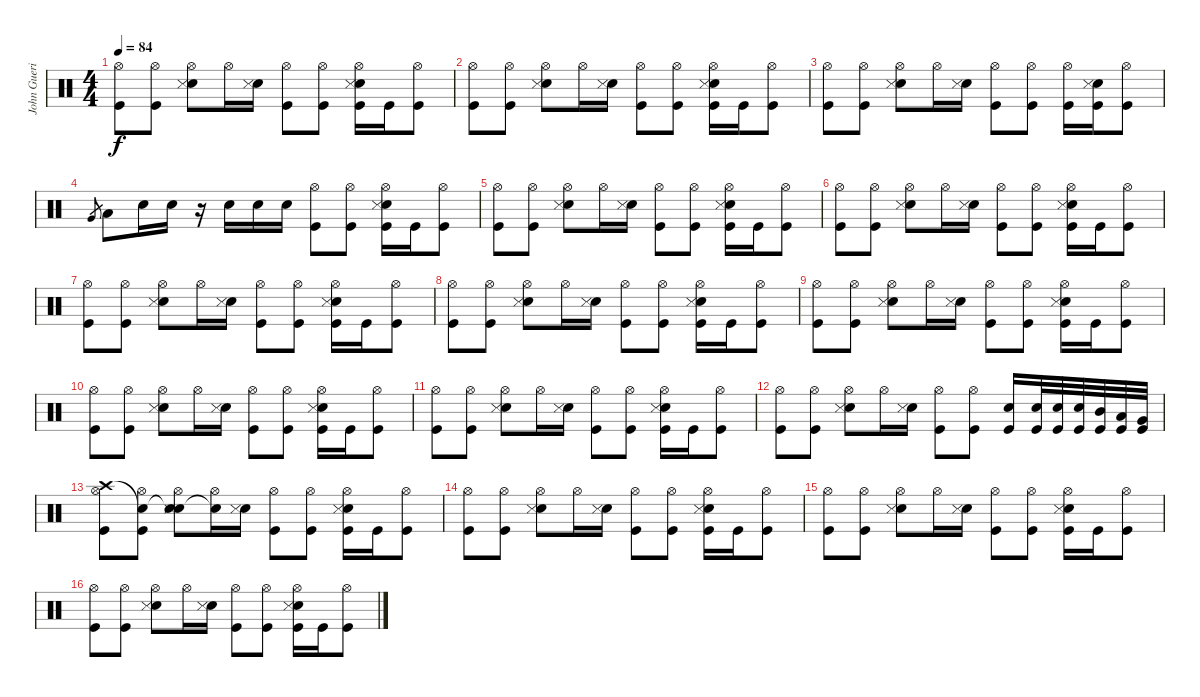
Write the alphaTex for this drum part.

\track ("John Guerin - Drum's" "John Gueri") {instrument percussion}
\staff {score}
\articulation defaults
\ts (4 4)
\tempo 84
\clef neutral
\ks c
("Hi-Hat (open)" "Kick (hit)").8{dy f} ("Hi-Hat (open)" "Kick (hit)").8 ("Hi-Hat (open)" "Electric Snare (hit)" "Snare (side stick) 3").8 "Hi-Hat (open)".16 ("Electric Snare (hit)" "Snare (side stick) 3").16 ("Hi-Hat (open)" "Kick (hit)").8 ("Hi-Hat (open)" "Kick (hit)").8 ("Hi-Hat (open)" "Electric Snare (hit)" "Snare (side stick) 3" "Kick (hit)").16 "Kick (hit)".16 ("Hi-Hat (open)" "Kick (hit)").8 |
("Hi-Hat (open)" "Kick (hit)").8 ("Hi-Hat (open)" "Kick (hit)").8 ("Hi-Hat (open)" "Electric Snare (hit)" "Snare (side stick) 3").8 "Hi-Hat (open)".16 ("Electric Snare (hit)" "Snare (side stick) 3").16 ("Hi-Hat (open)" "Kick (hit)").8 ("Hi-Hat (open)" "Kick (hit)").8 ("Hi-Hat (open)" "Electric Snare (hit)" "Snare (side stick) 3" "Kick (hit)").16 "Kick (hit)".16 ("Hi-Hat (open)" "Kick (hit)").8 |
("Hi-Hat (open)" "Kick (hit)").8 ("Hi-Hat (open)" "Kick (hit)").8 ("Hi-Hat (open)" "Electric Snare (hit)" "Snare (side stick) 3").8 "Hi-Hat (open)".16 ("Electric Snare (hit)" "Snare (side stick) 3").16 ("Hi-Hat (open)" "Kick (hit)").8 ("Hi-Hat (open)" "Kick (hit)").8 ("Hi-Hat (open)" "Kick (hit)").16 ("Electric Snare (hit)" "Snare (side stick) 3" "Kick (hit)").16 ("Hi-Hat (open)" "Kick (hit)").8 |
"Very Low Tom (hit)".8{gr} "Low Floor Tom (hit)".8 "Electric Snare (hit)".16 "Electric Snare (hit)".16 r.16 "Electric Snare (hit)".16 "Electric Snare (hit)".16 "Electric Snare (hit)".16 ("Hi-Hat (open)" "Kick (hit)").8 ("Hi-Hat (open)" "Kick (hit)").8 ("Hi-Hat (open)" "Electric Snare (hit)" "Snare (side stick) 3" "Kick (hit)").16 "Kick (hit)".16 ("Hi-Hat (open)" "Kick (hit)").8 |
("Hi-Hat (open)" "Kick (hit)").8 ("Hi-Hat (open)" "Kick (hit)").8 ("Hi-Hat (open)" "Electric Snare (hit)" "Snare (side stick) 3").8 "Hi-Hat (open)".16 ("Electric Snare (hit)" "Snare (side stick) 3").16 ("Hi-Hat (open)" "Kick (hit)").8 ("Hi-Hat (open)" "Kick (hit)").8 ("Hi-Hat (open)" "Electric Snare (hit)" "Snare (side stick) 3" "Kick (hit)").16 "Kick (hit)".16 ("Hi-Hat (open)" "Kick (hit)").8 |
("Hi-Hat (open)" "Kick (hit)").8 ("Hi-Hat (open)" "Kick (hit)").8 ("Hi-Hat (open)" "Electric Snare (hit)" "Snare (side stick) 3").8 "Hi-Hat (open)".16 ("Electric Snare (hit)" "Snare (side stick) 3").16 ("Hi-Hat (open)" "Kick (hit)").8 ("Hi-Hat (open)" "Kick (hit)").8 ("Hi-Hat (open)" "Electric Snare (hit)" "Snare (side stick) 3" "Kick (hit)").16 "Kick (hit)".16 ("Hi-Hat (open)" "Kick (hit)").8 |
("Hi-Hat (open)" "Kick (hit)").8 ("Hi-Hat (open)" "Kick (hit)").8 ("Hi-Hat (open)" "Electric Snare (hit)" "Snare (side stick) 3").8 "Hi-Hat (open)".16 ("Electric Snare (hit)" "Snare (side stick) 3").16 ("Hi-Hat (open)" "Kick (hit)").8 ("Hi-Hat (open)" "Kick (hit)").8 ("Hi-Hat (open)" "Electric Snare (hit)" "Snare (side stick) 3" "Kick (hit)").16 "Kick (hit)".16 ("Hi-Hat (open)" "Kick (hit)").8 |
("Hi-Hat (open)" "Kick (hit)").8 ("Hi-Hat (open)" "Kick (hit)").8 ("Hi-Hat (open)" "Electric Snare (hit)" "Snare (side stick) 3").8 "Hi-Hat (open)".16 ("Electric Snare (hit)" "Snare (side stick) 3").16 ("Hi-Hat (open)" "Kick (hit)").8 ("Hi-Hat (open)" "Kick (hit)").8 ("Hi-Hat (open)" "Electric Snare (hit)" "Snare (side stick) 3" "Kick (hit)").16 "Kick (hit)".16 ("Hi-Hat (open)" "Kick (hit)").8 |
("Hi-Hat (open)" "Kick (hit)").8 ("Hi-Hat (open)" "Kick (hit)").8 ("Hi-Hat (open)" "Electric Snare (hit)" "Snare (side stick) 3").8 "Hi-Hat (open)".16 ("Electric Snare (hit)" "Snare (side stick) 3").16 ("Hi-Hat (open)" "Kick (hit)").8 ("Hi-Hat (open)" "Kick (hit)").8 ("Hi-Hat (open)" "Electric Snare (hit)" "Snare (side stick) 3" "Kick (hit)").16 "Kick (hit)".16 ("Hi-Hat (open)" "Kick (hit)").8 |
("Hi-Hat (open)" "Kick (hit)").8 ("Hi-Hat (open)" "Kick (hit)").8 ("Hi-Hat (open)" "Electric Snare (hit)" "Snare (side stick) 3").8 "Hi-Hat (open)".16 ("Electric Snare (hit)" "Snare (side stick) 3").16 ("Hi-Hat (open)" "Kick (hit)").8 ("Hi-Hat (open)" "Kick (hit)").8 ("Hi-Hat (open)" "Electric Snare (hit)" "Snare (side stick) 3" "Kick (hit)").16 "Kick (hit)".16 ("Hi-Hat (open)" "Kick (hit)").8 |
("Hi-Hat (open)" "Kick (hit)").8 ("Hi-Hat (open)" "Kick (hit)").8 ("Hi-Hat (open)" "Electric Snare (hit)" "Snare (side stick) 3").8 "Hi-Hat (open)".16 ("Electric Snare (hit)" "Snare (side stick) 3").16 ("Hi-Hat (open)" "Kick (hit)").8 ("Hi-Hat (open)" "Kick (hit)").8 ("Hi-Hat (open)" "Electric Snare (hit)" "Snare (side stick) 3" "Kick (hit)").16 "Kick (hit)".16 ("Hi-Hat (open)" "Kick (hit)").8 |
("Hi-Hat (open)" "Kick (hit)").8 ("Hi-Hat (open)" "Kick (hit)").8 ("Hi-Hat (open)" "Electric Snare (hit)" "Snare (side stick) 3").8 "Hi-Hat (open)".16 ("Electric Snare (hit)" "Snare (side stick) 3").16 ("Hi-Hat (open)" "Kick (hit)").8 ("Hi-Hat (open)" "Kick (hit)").8 ("Electric Snare (hit)" "Kick (hit)").16 ("Electric Snare (hit)" "Kick (hit)").32 ("Electric Snare (hit)" "Kick (hit)").32 ("Electric Snare (hit)" "Kick (hit)").32 ("Mid Tom (hit)" "Kick (hit)").32 ("Low Tom (hit)" "Kick (hit)").32 ("Very Low Tom (hit)" "Kick (hit)").32 |
("Crash high (hit)" "Hi-Hat (open)" "Kick (hit)").8 ("Snare (hit)"{t} "Hi-Hat (open)" "Kick (hit)").8 ("Snare (hit)"{t} "Hi-Hat (open)" "Electric Snare (hit)" "Snare (side stick) 3").8 ("Snare (hit)"{t} "Hi-Hat (open)").16 ("Electric Snare (hit)" "Snare (side stick) 3").16 ("Hi-Hat (open)" "Kick (hit)").8 ("Hi-Hat (open)" "Kick (hit)").8 ("Hi-Hat (open)" "Electric Snare (hit)" "Snare (side stick) 3" "Kick (hit)").16 "Kick (hit)".16 ("Hi-Hat (open)" "Kick (hit)").8 |
("Hi-Hat (open)" "Kick (hit)").8 ("Hi-Hat (open)" "Kick (hit)").8 ("Hi-Hat (open)" "Electric Snare (hit)" "Snare (side stick) 3").8 "Hi-Hat (open)".16 ("Electric Snare (hit)" "Snare (side stick) 3").16 ("Hi-Hat (open)" "Kick (hit)").8 ("Hi-Hat (open)" "Kick (hit)").8 ("Hi-Hat (open)" "Electric Snare (hit)" "Snare (side stick) 3" "Kick (hit)").16 "Kick (hit)".16 ("Hi-Hat (open)" "Kick (hit)").8 |
("Hi-Hat (open)" "Kick (hit)").8 ("Hi-Hat (open)" "Kick (hit)").8 ("Hi-Hat (open)" "Electric Snare (hit)" "Snare (side stick) 3").8 "Hi-Hat (open)".16 ("Electric Snare (hit)" "Snare (side stick) 3").16 ("Hi-Hat (open)" "Kick (hit)").8 ("Hi-Hat (open)" "Kick (hit)").8 ("Hi-Hat (open)" "Electric Snare (hit)" "Snare (side stick) 3" "Kick (hit)").16 "Kick (hit)".16 ("Hi-Hat (open)" "Kick (hit)").8 |
("Hi-Hat (open)" "Kick (hit)").8 ("Hi-Hat (open)" "Kick (hit)").8 ("Hi-Hat (open)" "Electric Snare (hit)" "Snare (side stick) 3").8 "Hi-Hat (open)".16 ("Electric Snare (hit)" "Snare (side stick) 3").16 ("Hi-Hat (open)" "Kick (hit)").8 ("Hi-Hat (open)" "Kick (hit)").8 ("Hi-Hat (open)" "Electric Snare (hit)" "Snare (side stick) 3" "Kick (hit)").16 "Kick (hit)".16 ("Hi-Hat (open)" "Kick (hit)").8
